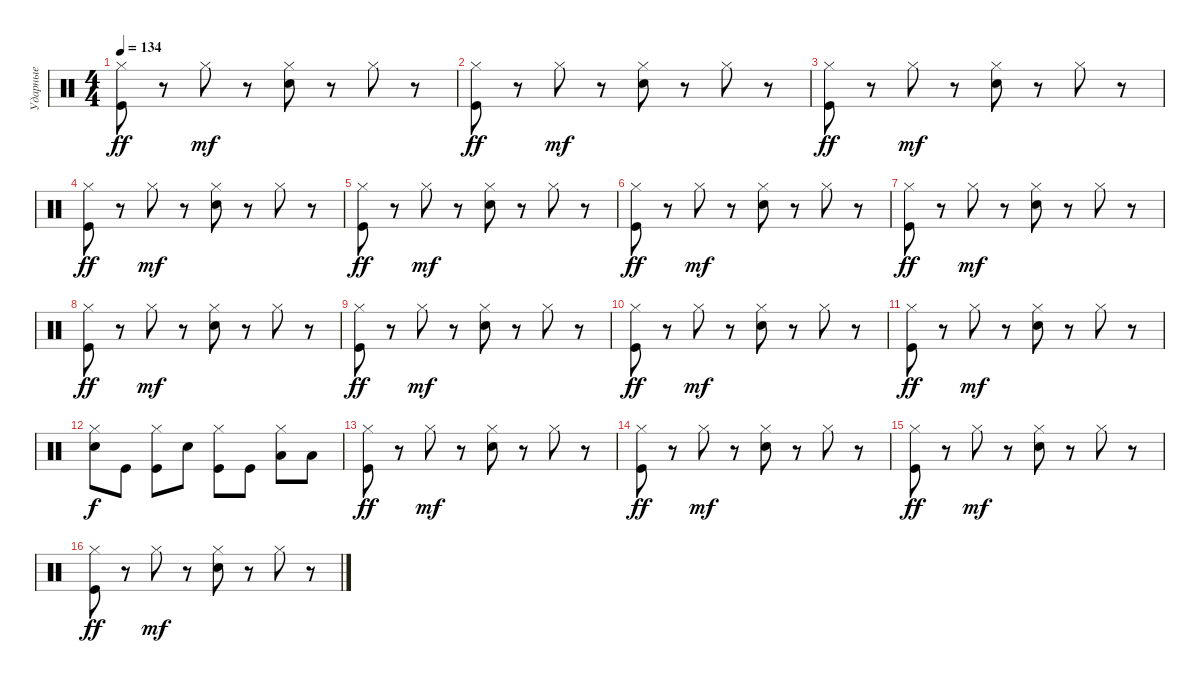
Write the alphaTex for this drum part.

\track ("Ударные" "Ударные") {instrument percussion}
\staff {score}
\articulation defaults
\ts (4 4)
\tempo 134
\clef neutral
\ks c
("Kick (hit)" "Hi-Hat (closed)").8{dy ff} r.8 "Hi-Hat (closed)".8{dy mf} r.8 ("Hi-Hat (closed)" "Snare (hit) 2").8 r.8 "Hi-Hat (closed)".8 r.8 |
("Kick (hit)" "Hi-Hat (closed)").8{dy ff} r.8 "Hi-Hat (closed)".8{dy mf} r.8 ("Hi-Hat (closed)" "Snare (hit) 2").8 r.8 "Hi-Hat (closed)".8 r.8 |
("Kick (hit)" "Hi-Hat (closed)").8{dy ff} r.8 "Hi-Hat (closed)".8{dy mf} r.8 ("Hi-Hat (closed)" "Snare (hit) 2").8 r.8 "Hi-Hat (closed)".8 r.8 |
("Kick (hit)" "Hi-Hat (closed)").8{dy ff} r.8 "Hi-Hat (closed)".8{dy mf} r.8 ("Hi-Hat (closed)" "Snare (hit) 2").8 r.8 "Hi-Hat (closed)".8 r.8 |
("Kick (hit)" "Hi-Hat (closed)").8{dy ff} r.8 "Hi-Hat (closed)".8{dy mf} r.8 ("Hi-Hat (closed)" "Snare (hit) 2").8 r.8 "Hi-Hat (closed)".8 r.8 |
("Kick (hit)" "Hi-Hat (closed)").8{dy ff} r.8 "Hi-Hat (closed)".8{dy mf} r.8 ("Hi-Hat (closed)" "Snare (hit) 2").8 r.8 "Hi-Hat (closed)".8 r.8 |
("Kick (hit)" "Hi-Hat (closed)").8{dy ff} r.8 "Hi-Hat (closed)".8{dy mf} r.8 ("Hi-Hat (closed)" "Snare (hit) 2").8 r.8 "Hi-Hat (closed)".8 r.8 |
("Kick (hit)" "Hi-Hat (closed)").8{dy ff} r.8 "Hi-Hat (closed)".8{dy mf} r.8 ("Hi-Hat (closed)" "Snare (hit) 2").8 r.8 "Hi-Hat (closed)".8 r.8 |
("Kick (hit)" "Hi-Hat (closed)").8{dy ff} r.8 "Hi-Hat (closed)".8{dy mf} r.8 ("Hi-Hat (closed)" "Snare (hit) 2").8 r.8 "Hi-Hat (closed)".8 r.8 |
("Kick (hit)" "Hi-Hat (closed)").8{dy ff} r.8 "Hi-Hat (closed)".8{dy mf} r.8 ("Hi-Hat (closed)" "Snare (hit) 2").8 r.8 "Hi-Hat (closed)".8 r.8 |
("Kick (hit)" "Hi-Hat (closed)").8{dy ff} r.8 "Hi-Hat (closed)".8{dy mf} r.8 ("Hi-Hat (closed)" "Snare (hit) 2").8 r.8 "Hi-Hat (closed)".8 r.8 |
("Snare (hit) 2" "Hi-Hat (closed)").8{dy f} "Kick (hit)".8 ("Kick (hit)" "Hi-Hat (closed)").8 "Snare (hit) 2".8 ("Kick (hit)" "Hi-Hat (closed)").8 "Kick (hit)".8 ("Low Floor Tom (hit)" "Hi-Hat (closed)").8 "Low Floor Tom (hit)".8 |
("Kick (hit)" "Hi-Hat (closed)").8{dy ff} r.8 "Hi-Hat (closed)".8{dy mf} r.8 ("Hi-Hat (closed)" "Snare (hit) 2").8 r.8 "Hi-Hat (closed)".8 r.8 |
("Kick (hit)" "Hi-Hat (closed)").8{dy ff} r.8 "Hi-Hat (closed)".8{dy mf} r.8 ("Hi-Hat (closed)" "Snare (hit) 2").8 r.8 "Hi-Hat (closed)".8 r.8 |
("Kick (hit)" "Hi-Hat (closed)").8{dy ff} r.8 "Hi-Hat (closed)".8{dy mf} r.8 ("Hi-Hat (closed)" "Snare (hit) 2").8 r.8 "Hi-Hat (closed)".8 r.8 |
("Kick (hit)" "Hi-Hat (closed)").8{dy ff} r.8 "Hi-Hat (closed)".8{dy mf} r.8 ("Hi-Hat (closed)" "Snare (hit) 2").8 r.8 "Hi-Hat (closed)".8 r.8
